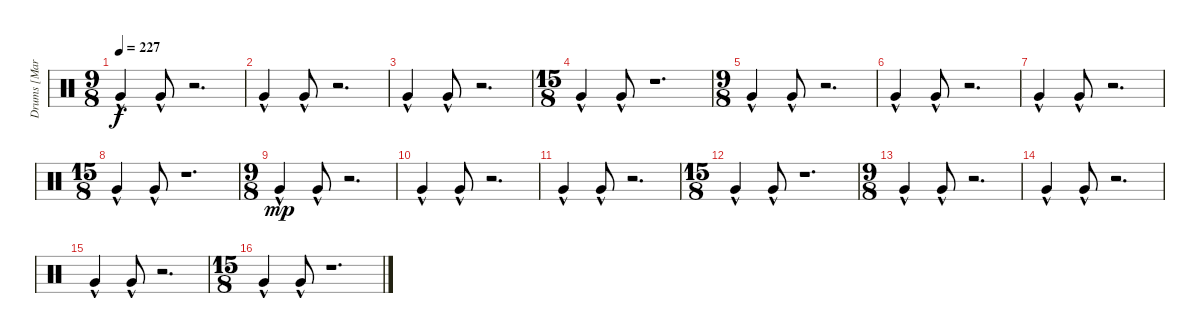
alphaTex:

\track ("Drums [Martin Lopez]" "Drums [Mar") {instrument percussion}
\staff {score}
\articulation defaults
\ts (9 8)
\tempo 227
\clef neutral
\ks c "Very Low Tom (hit)"{hac}.4{dy f} "Very Low Tom (hit)"{hac}.8
r.2{d} |
"Very Low Tom (hit)"{hac}.4 "Very Low Tom (hit)"{hac}.8 r.2{d} |
"Very Low Tom (hit)"{hac}.4 "Very Low Tom (hit)"{hac}.8 r.2{d} |
\ts (15 8)
"Very Low Tom (hit)"{hac}.4 "Very Low Tom (hit)"{hac}.8 r.1{d} |
\ts (9 8)
"Very Low Tom (hit)"{hac}.4 "Very Low Tom (hit)"{hac}.8 r.2{d} |
"Very Low Tom (hit)"{hac}.4 "Very Low Tom (hit)"{hac}.8 r.2{d} |
"Very Low Tom (hit)"{hac}.4 "Very Low Tom (hit)"{hac}.8 r.2{d} |
\ts (15 8)
"Very Low Tom (hit)"{hac}.4 "Very Low Tom (hit)"{hac}.8 r.1{d} |
\ts (9 8)
"Very Low Tom (hit)"{hac}.4{dy mp} "Very Low Tom (hit)"{hac}.8 r.2{d} |
"Very Low Tom (hit)"{hac}.4 "Very Low Tom (hit)"{hac}.8 r.2{d} |
"Very Low Tom (hit)"{hac}.4 "Very Low Tom (hit)"{hac}.8 r.2{d} |
\ts (15 8)
"Very Low Tom (hit)"{hac}.4 "Very Low Tom (hit)"{hac}.8 r.1{d} |
\ts (9 8)
"Very Low Tom (hit)"{hac}.4 "Very Low Tom (hit)"{hac}.8 r.2{d} |
"Very Low Tom (hit)"{hac}.4 "Very Low Tom (hit)"{hac}.8 r.2{d} |
"Very Low Tom (hit)"{hac}.4 "Very Low Tom (hit)"{hac}.8 r.2{d} |
\ts (15 8)
"Very Low Tom (hit)"{hac}.4 "Very Low Tom (hit)"{hac}.8 r.1{d}
